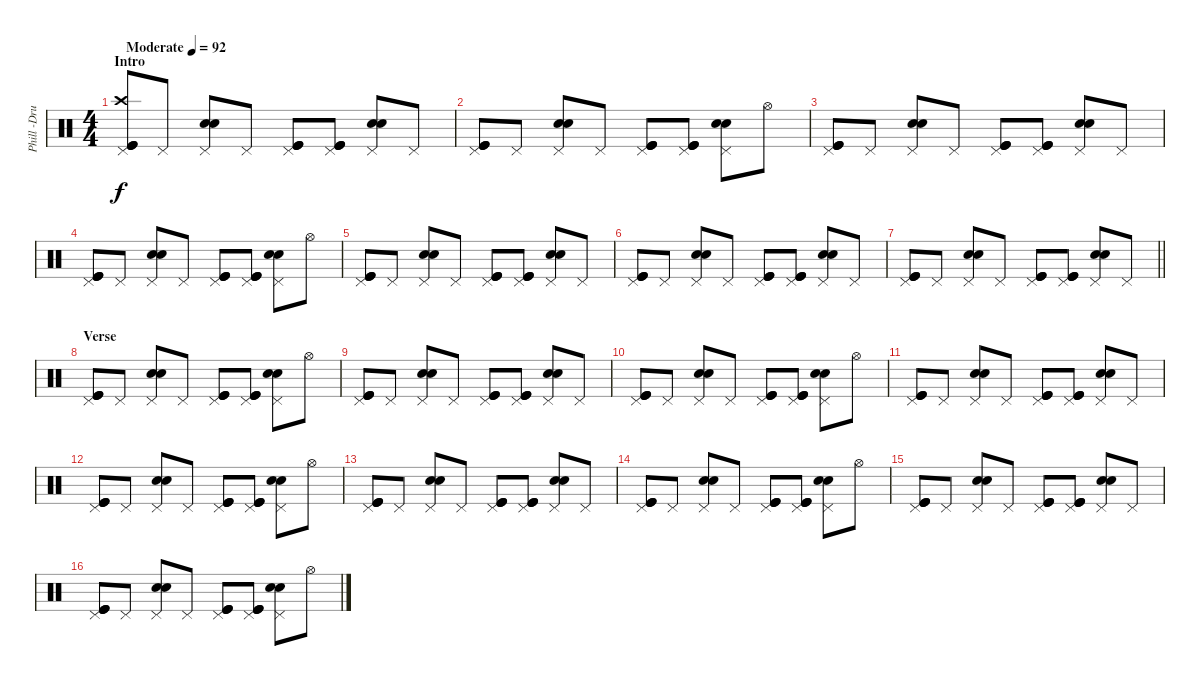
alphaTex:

\track ("Phill -Drums" "Phill -Dru") {instrument percussion}
\staff {score}
\articulation defaults
\ts (4 4)
\section ("" "Intro")
\tempo (92 "Moderate")
\clef neutral
\ks c
("Pedal Hi-Hat (hit)" "Crash high (hit)" "Kick (hit)" "Kick (hit)" "Kick (hit)").8{dy f} "Pedal Hi-Hat (hit)".8 ("Pedal Hi-Hat (hit)" "Snare (hit) 2" "Snare (hit) 2").8 "Pedal Hi-Hat (hit)".8 ("Pedal Hi-Hat (hit)" "Kick (hit)" "Kick (hit)" "Kick (hit)").8 ("Pedal Hi-Hat (hit)" "Kick (hit)" "Kick (hit)" "Kick (hit)").8 ("Pedal Hi-Hat (hit)" "Snare (hit) 2" "Snare (hit) 2").8 "Pedal Hi-Hat (hit)".8 |
("Pedal Hi-Hat (hit)" "Kick (hit)" "Kick (hit)" "Kick (hit)").8 "Pedal Hi-Hat (hit)".8 ("Pedal Hi-Hat (hit)" "Snare (hit) 2" "Snare (hit) 2").8 "Pedal Hi-Hat (hit)".8 ("Pedal Hi-Hat (hit)" "Kick (hit)" "Kick (hit)" "Kick (hit)").8 ("Pedal Hi-Hat (hit)" "Kick (hit)" "Kick (hit)" "Kick (hit)").8 ("Pedal Hi-Hat (hit)" "Snare (hit) 2" "Snare (hit) 2").8 "Hi-Hat (open)".8 |
("Pedal Hi-Hat (hit)" "Kick (hit)" "Kick (hit)" "Kick (hit)").8 "Pedal Hi-Hat (hit)".8 ("Pedal Hi-Hat (hit)" "Snare (hit) 2" "Snare (hit) 2").8 "Pedal Hi-Hat (hit)".8 ("Pedal Hi-Hat (hit)" "Kick (hit)" "Kick (hit)" "Kick (hit)").8 ("Pedal Hi-Hat (hit)" "Kick (hit)" "Kick (hit)" "Kick (hit)").8 ("Pedal Hi-Hat (hit)" "Snare (hit) 2" "Snare (hit) 2").8 "Pedal Hi-Hat (hit)".8 |
("Pedal Hi-Hat (hit)" "Kick (hit)" "Kick (hit)" "Kick (hit)").8 "Pedal Hi-Hat (hit)".8 ("Pedal Hi-Hat (hit)" "Snare (hit) 2" "Snare (hit) 2").8 "Pedal Hi-Hat (hit)".8 ("Pedal Hi-Hat (hit)" "Kick (hit)" "Kick (hit)" "Kick (hit)").8 ("Pedal Hi-Hat (hit)" "Kick (hit)" "Kick (hit)" "Kick (hit)").8 ("Pedal Hi-Hat (hit)" "Snare (hit) 2" "Snare (hit) 2").8 "Hi-Hat (open)".8 |
("Pedal Hi-Hat (hit)" "Kick (hit)" "Kick (hit)" "Kick (hit)").8 "Pedal Hi-Hat (hit)".8 ("Pedal Hi-Hat (hit)" "Snare (hit) 2" "Snare (hit) 2").8 "Pedal Hi-Hat (hit)".8 ("Pedal Hi-Hat (hit)" "Kick (hit)" "Kick (hit)" "Kick (hit)").8 ("Pedal Hi-Hat (hit)" "Kick (hit)" "Kick (hit)" "Kick (hit)").8 ("Pedal Hi-Hat (hit)" "Snare (hit) 2" "Snare (hit) 2").8 "Pedal Hi-Hat (hit)".8 |
("Pedal Hi-Hat (hit)" "Kick (hit)" "Kick (hit)" "Kick (hit)").8 "Pedal Hi-Hat (hit)".8 ("Pedal Hi-Hat (hit)" "Snare (hit) 2" "Snare (hit) 2").8 "Pedal Hi-Hat (hit)".8 ("Pedal Hi-Hat (hit)" "Kick (hit)" "Kick (hit)" "Kick (hit)").8 ("Pedal Hi-Hat (hit)" "Kick (hit)" "Kick (hit)" "Kick (hit)").8 ("Pedal Hi-Hat (hit)" "Snare (hit) 2" "Snare (hit) 2").8 "Pedal Hi-Hat (hit)".8 |
\barLineRight lightlight
("Pedal Hi-Hat (hit)" "Kick (hit)" "Kick (hit)" "Kick (hit)").8 "Pedal Hi-Hat (hit)".8 ("Pedal Hi-Hat (hit)" "Snare (hit) 2" "Snare (hit) 2").8 "Pedal Hi-Hat (hit)".8 ("Pedal Hi-Hat (hit)" "Kick (hit)" "Kick (hit)" "Kick (hit)").8 ("Pedal Hi-Hat (hit)" "Kick (hit)" "Kick (hit)" "Kick (hit)").8 ("Pedal Hi-Hat (hit)" "Snare (hit) 2" "Snare (hit) 2").8 "Pedal Hi-Hat (hit)".8 |
\section ("" "Verse")
("Pedal Hi-Hat (hit)" "Kick (hit)" "Kick (hit)" "Kick (hit)").8 "Pedal Hi-Hat (hit)".8 ("Pedal Hi-Hat (hit)" "Snare (hit) 2" "Snare (hit) 2").8 "Pedal Hi-Hat (hit)".8 ("Pedal Hi-Hat (hit)" "Kick (hit)" "Kick (hit)" "Kick (hit)").8 ("Pedal Hi-Hat (hit)" "Kick (hit)" "Kick (hit)" "Kick (hit)").8 ("Pedal Hi-Hat (hit)" "Snare (hit) 2" "Snare (hit) 2").8 "Hi-Hat (open)".8 |
("Pedal Hi-Hat (hit)" "Kick (hit)" "Kick (hit)" "Kick (hit)").8 "Pedal Hi-Hat (hit)".8 ("Pedal Hi-Hat (hit)" "Snare (hit) 2" "Snare (hit) 2").8 "Pedal Hi-Hat (hit)".8 ("Pedal Hi-Hat (hit)" "Kick (hit)" "Kick (hit)" "Kick (hit)").8 ("Pedal Hi-Hat (hit)" "Kick (hit)" "Kick (hit)" "Kick (hit)").8 ("Pedal Hi-Hat (hit)" "Snare (hit) 2" "Snare (hit) 2").8 "Pedal Hi-Hat (hit)".8 |
("Pedal Hi-Hat (hit)" "Kick (hit)" "Kick (hit)" "Kick (hit)").8 "Pedal Hi-Hat (hit)".8 ("Pedal Hi-Hat (hit)" "Snare (hit) 2" "Snare (hit) 2").8 "Pedal Hi-Hat (hit)".8 ("Pedal Hi-Hat (hit)" "Kick (hit)" "Kick (hit)" "Kick (hit)").8 ("Pedal Hi-Hat (hit)" "Kick (hit)" "Kick (hit)" "Kick (hit)").8 ("Pedal Hi-Hat (hit)" "Snare (hit) 2" "Snare (hit) 2").8 "Hi-Hat (open)".8 |
("Pedal Hi-Hat (hit)" "Kick (hit)" "Kick (hit)" "Kick (hit)").8 "Pedal Hi-Hat (hit)".8 ("Pedal Hi-Hat (hit)" "Snare (hit) 2" "Snare (hit) 2").8 "Pedal Hi-Hat (hit)".8 ("Pedal Hi-Hat (hit)" "Kick (hit)" "Kick (hit)" "Kick (hit)").8 ("Pedal Hi-Hat (hit)" "Kick (hit)" "Kick (hit)" "Kick (hit)").8 ("Pedal Hi-Hat (hit)" "Snare (hit) 2" "Snare (hit) 2").8 "Pedal Hi-Hat (hit)".8 |
("Pedal Hi-Hat (hit)" "Kick (hit)" "Kick (hit)" "Kick (hit)").8 "Pedal Hi-Hat (hit)".8 ("Pedal Hi-Hat (hit)" "Snare (hit) 2" "Snare (hit) 2").8 "Pedal Hi-Hat (hit)".8 ("Pedal Hi-Hat (hit)" "Kick (hit)" "Kick (hit)" "Kick (hit)").8 ("Pedal Hi-Hat (hit)" "Kick (hit)" "Kick (hit)" "Kick (hit)").8 ("Pedal Hi-Hat (hit)" "Snare (hit) 2" "Snare (hit) 2").8 "Hi-Hat (open)".8 |
("Pedal Hi-Hat (hit)" "Kick (hit)" "Kick (hit)" "Kick (hit)").8 "Pedal Hi-Hat (hit)".8 ("Pedal Hi-Hat (hit)" "Snare (hit) 2" "Snare (hit) 2").8 "Pedal Hi-Hat (hit)".8 ("Pedal Hi-Hat (hit)" "Kick (hit)" "Kick (hit)" "Kick (hit)").8 ("Pedal Hi-Hat (hit)" "Kick (hit)" "Kick (hit)" "Kick (hit)").8 ("Pedal Hi-Hat (hit)" "Snare (hit) 2" "Snare (hit) 2").8 "Pedal Hi-Hat (hit)".8 |
("Pedal Hi-Hat (hit)" "Kick (hit)" "Kick (hit)" "Kick (hit)").8 "Pedal Hi-Hat (hit)".8 ("Pedal Hi-Hat (hit)" "Snare (hit) 2" "Snare (hit) 2").8 "Pedal Hi-Hat (hit)".8 ("Pedal Hi-Hat (hit)" "Kick (hit)" "Kick (hit)" "Kick (hit)").8 ("Pedal Hi-Hat (hit)" "Kick (hit)" "Kick (hit)" "Kick (hit)").8 ("Pedal Hi-Hat (hit)" "Snare (hit) 2" "Snare (hit) 2").8 "Hi-Hat (open)".8 |
("Pedal Hi-Hat (hit)" "Kick (hit)" "Kick (hit)" "Kick (hit)").8 "Pedal Hi-Hat (hit)".8 ("Pedal Hi-Hat (hit)" "Snare (hit) 2" "Snare (hit) 2").8 "Pedal Hi-Hat (hit)".8 ("Pedal Hi-Hat (hit)" "Kick (hit)" "Kick (hit)" "Kick (hit)").8 ("Pedal Hi-Hat (hit)" "Kick (hit)" "Kick (hit)" "Kick (hit)").8 ("Pedal Hi-Hat (hit)" "Snare (hit) 2" "Snare (hit) 2").8 "Pedal Hi-Hat (hit)".8 |
("Pedal Hi-Hat (hit)" "Kick (hit)" "Kick (hit)" "Kick (hit)").8 "Pedal Hi-Hat (hit)".8 ("Pedal Hi-Hat (hit)" "Snare (hit) 2" "Snare (hit) 2").8 "Pedal Hi-Hat (hit)".8 ("Pedal Hi-Hat (hit)" "Kick (hit)" "Kick (hit)" "Kick (hit)").8 ("Pedal Hi-Hat (hit)" "Kick (hit)" "Kick (hit)" "Kick (hit)").8 ("Pedal Hi-Hat (hit)" "Snare (hit) 2" "Snare (hit) 2").8 "Hi-Hat (open)".8
